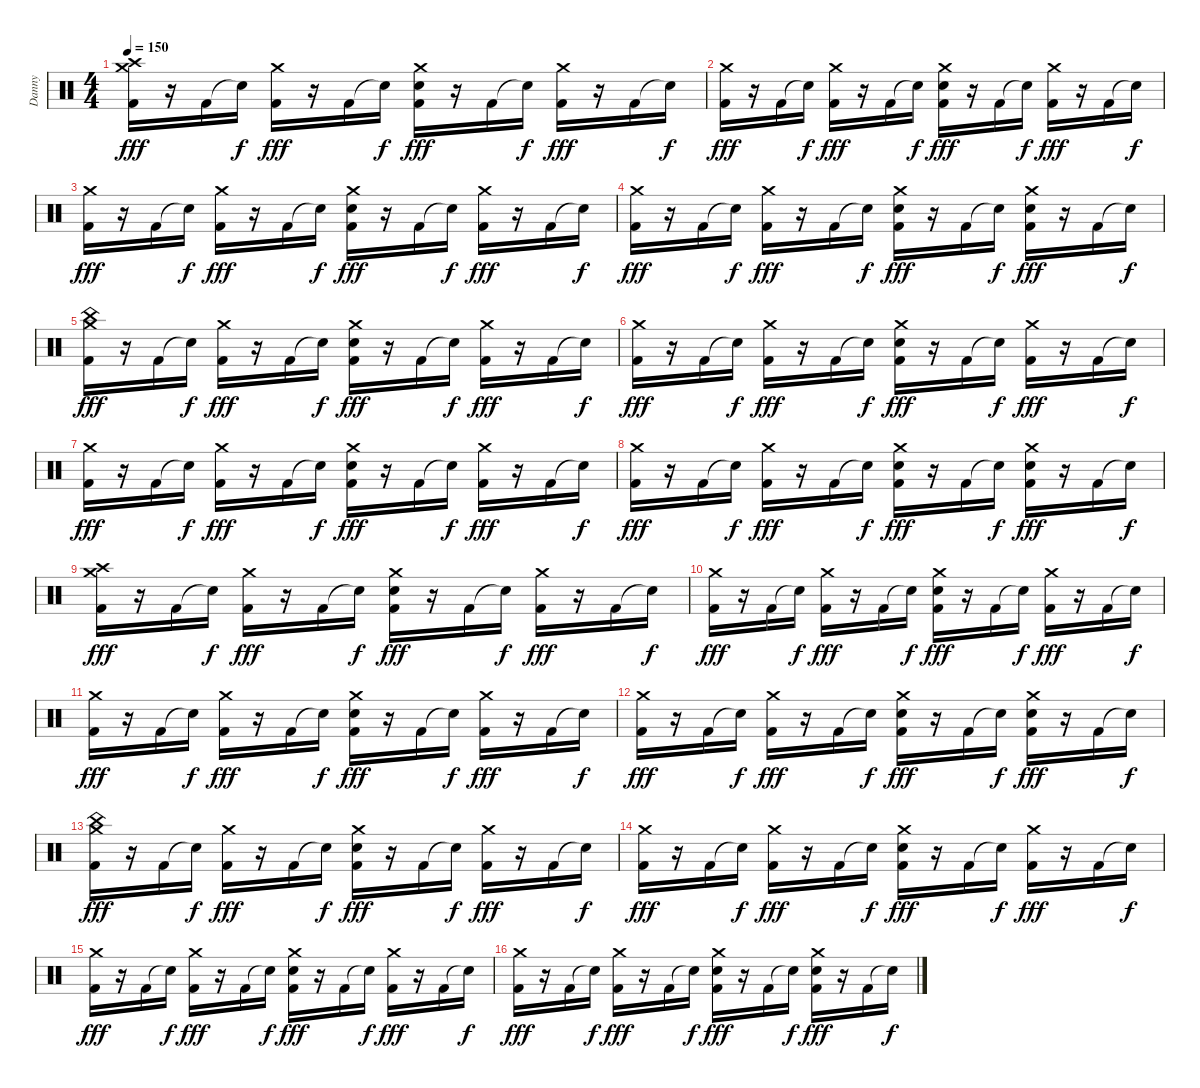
\track ("Danny" "Danny") {instrument percussion}
\staff {score}
\articulation defaults
\ts (4 4)
\tempo 150
\clef neutral
\ks c
("Crash medium (hit)" "Crash high (hit)" "Kick (hit) 2").16{dy fff} r.16 "Kick (hit) 2".16 "Snare (hit)"{t}.16{dy f} ("Crash medium (hit)" "Kick (hit) 2").16{dy fff} r.16 "Kick (hit) 2".16 "Snare (hit)"{t}.16{dy f} ("Crash medium (hit)" "Snare (hit) 2" "Kick (hit) 2").16{dy fff} r.16 "Kick (hit) 2".16 "Snare (hit)"{t}.16{dy f} ("Crash medium (hit)" "Kick (hit) 2").16{dy fff} r.16 "Kick (hit) 2".16 "Snare (hit)"{t}.16{dy f} |
("Crash medium (hit)" "Kick (hit) 2").16{dy fff} r.16 "Kick (hit) 2".16 "Snare (hit)"{t}.16{dy f} ("Crash medium (hit)" "Kick (hit) 2").16{dy fff} r.16 "Kick (hit) 2".16 "Snare (hit)"{t}.16{dy f} ("Crash medium (hit)" "Snare (hit) 2" "Kick (hit) 2").16{dy fff} r.16 "Kick (hit) 2".16 "Snare (hit)"{t}.16{dy f} ("Crash medium (hit)" "Kick (hit) 2").16{dy fff} r.16 "Kick (hit) 2".16 "Snare (hit)"{t}.16{dy f} |
("Crash medium (hit)" "Kick (hit) 2").16{dy fff} r.16 "Kick (hit) 2".16 "Snare (hit)"{t}.16{dy f} ("Crash medium (hit)" "Kick (hit) 2").16{dy fff} r.16 "Kick (hit) 2".16 "Snare (hit)"{t}.16{dy f} ("Crash medium (hit)" "Snare (hit) 2" "Kick (hit) 2").16{dy fff} r.16 "Kick (hit) 2".16 "Snare (hit)"{t}.16{dy f} ("Crash medium (hit)" "Kick (hit) 2").16{dy fff} r.16 "Kick (hit) 2".16 "Snare (hit)"{t}.16{dy f} |
("Crash medium (hit)" "Kick (hit) 2").16{dy fff} r.16 "Kick (hit) 2".16 "Snare (hit)"{t}.16{dy f} ("Crash medium (hit)" "Kick (hit) 2").16{dy fff} r.16 "Kick (hit) 2".16 "Snare (hit)"{t}.16{dy f} ("Crash medium (hit)" "Snare (hit) 2" "Kick (hit) 2").16{dy fff} r.16 "Kick (hit) 2".16 "Snare (hit)"{t}.16{dy f} ("Crash medium (hit)" "Snare (hit) 2" "Kick (hit) 2").16{dy fff} r.16 "Kick (hit) 2".16 "Snare (hit)"{t}.16{dy f} |
("Crash medium (hit)" "China (hit)" "Kick (hit) 2").16{dy fff} r.16 "Kick (hit) 2".16 "Snare (hit)"{t}.16{dy f} ("Crash medium (hit)" "Kick (hit) 2").16{dy fff} r.16 "Kick (hit) 2".16 "Snare (hit)"{t}.16{dy f} ("Crash medium (hit)" "Snare (hit) 2" "Kick (hit) 2").16{dy fff} r.16 "Kick (hit) 2".16 "Snare (hit)"{t}.16{dy f} ("Crash medium (hit)" "Kick (hit) 2").16{dy fff} r.16 "Kick (hit) 2".16 "Snare (hit)"{t}.16{dy f} |
("Crash medium (hit)" "Kick (hit) 2").16{dy fff} r.16 "Kick (hit) 2".16 "Snare (hit)"{t}.16{dy f} ("Crash medium (hit)" "Kick (hit) 2").16{dy fff} r.16 "Kick (hit) 2".16 "Snare (hit)"{t}.16{dy f} ("Crash medium (hit)" "Snare (hit) 2" "Kick (hit) 2").16{dy fff} r.16 "Kick (hit) 2".16 "Snare (hit)"{t}.16{dy f} ("Crash medium (hit)" "Kick (hit) 2").16{dy fff} r.16 "Kick (hit) 2".16 "Snare (hit)"{t}.16{dy f} |
("Crash medium (hit)" "Kick (hit) 2").16{dy fff} r.16 "Kick (hit) 2".16 "Snare (hit)"{t}.16{dy f} ("Crash medium (hit)" "Kick (hit) 2").16{dy fff} r.16 "Kick (hit) 2".16 "Snare (hit)"{t}.16{dy f} ("Crash medium (hit)" "Snare (hit) 2" "Kick (hit) 2").16{dy fff} r.16 "Kick (hit) 2".16 "Snare (hit)"{t}.16{dy f} ("Crash medium (hit)" "Kick (hit) 2").16{dy fff} r.16 "Kick (hit) 2".16 "Snare (hit)"{t}.16{dy f} |
("Crash medium (hit)" "Kick (hit) 2").16{dy fff} r.16 "Kick (hit) 2".16 "Snare (hit)"{t}.16{dy f} ("Crash medium (hit)" "Kick (hit) 2").16{dy fff} r.16 "Kick (hit) 2".16 "Snare (hit)"{t}.16{dy f} ("Crash medium (hit)" "Snare (hit) 2" "Kick (hit) 2").16{dy fff} r.16 "Kick (hit) 2".16 "Snare (hit)"{t}.16{dy f} ("Crash medium (hit)" "Snare (hit) 2" "Kick (hit) 2").16{dy fff} r.16 "Kick (hit) 2".16 "Snare (hit)"{t}.16{dy f} |
("Crash medium (hit)" "Crash high (hit)" "Kick (hit) 2").16{dy fff} r.16 "Kick (hit) 2".16 "Snare (hit)"{t}.16{dy f} ("Crash medium (hit)" "Kick (hit) 2").16{dy fff} r.16 "Kick (hit) 2".16 "Snare (hit)"{t}.16{dy f} ("Crash medium (hit)" "Snare (hit) 2" "Kick (hit) 2").16{dy fff} r.16 "Kick (hit) 2".16 "Snare (hit)"{t}.16{dy f} ("Crash medium (hit)" "Kick (hit) 2").16{dy fff} r.16 "Kick (hit) 2".16 "Snare (hit)"{t}.16{dy f} |
("Crash medium (hit)" "Kick (hit) 2").16{dy fff} r.16 "Kick (hit) 2".16 "Snare (hit)"{t}.16{dy f} ("Crash medium (hit)" "Kick (hit) 2").16{dy fff} r.16 "Kick (hit) 2".16 "Snare (hit)"{t}.16{dy f} ("Crash medium (hit)" "Snare (hit) 2" "Kick (hit) 2").16{dy fff} r.16 "Kick (hit) 2".16 "Snare (hit)"{t}.16{dy f} ("Crash medium (hit)" "Kick (hit) 2").16{dy fff} r.16 "Kick (hit) 2".16 "Snare (hit)"{t}.16{dy f} |
("Crash medium (hit)" "Kick (hit) 2").16{dy fff} r.16 "Kick (hit) 2".16 "Snare (hit)"{t}.16{dy f} ("Crash medium (hit)" "Kick (hit) 2").16{dy fff} r.16 "Kick (hit) 2".16 "Snare (hit)"{t}.16{dy f} ("Crash medium (hit)" "Snare (hit) 2" "Kick (hit) 2").16{dy fff} r.16 "Kick (hit) 2".16 "Snare (hit)"{t}.16{dy f} ("Crash medium (hit)" "Kick (hit) 2").16{dy fff} r.16 "Kick (hit) 2".16 "Snare (hit)"{t}.16{dy f} |
("Crash medium (hit)" "Kick (hit) 2").16{dy fff} r.16 "Kick (hit) 2".16 "Snare (hit)"{t}.16{dy f} ("Crash medium (hit)" "Kick (hit) 2").16{dy fff} r.16 "Kick (hit) 2".16 "Snare (hit)"{t}.16{dy f} ("Crash medium (hit)" "Snare (hit) 2" "Kick (hit) 2").16{dy fff} r.16 "Kick (hit) 2".16 "Snare (hit)"{t}.16{dy f} ("Crash medium (hit)" "Snare (hit) 2" "Kick (hit) 2").16{dy fff} r.16 "Kick (hit) 2".16 "Snare (hit)"{t}.16{dy f} |
("Crash medium (hit)" "China (hit)" "Kick (hit) 2").16{dy fff} r.16 "Kick (hit) 2".16 "Snare (hit)"{t}.16{dy f} ("Crash medium (hit)" "Kick (hit) 2").16{dy fff} r.16 "Kick (hit) 2".16 "Snare (hit)"{t}.16{dy f} ("Crash medium (hit)" "Snare (hit) 2" "Kick (hit) 2").16{dy fff} r.16 "Kick (hit) 2".16 "Snare (hit)"{t}.16{dy f} ("Crash medium (hit)" "Kick (hit) 2").16{dy fff} r.16 "Kick (hit) 2".16 "Snare (hit)"{t}.16{dy f} |
("Crash medium (hit)" "Kick (hit) 2").16{dy fff} r.16 "Kick (hit) 2".16 "Snare (hit)"{t}.16{dy f} ("Crash medium (hit)" "Kick (hit) 2").16{dy fff} r.16 "Kick (hit) 2".16 "Snare (hit)"{t}.16{dy f} ("Crash medium (hit)" "Snare (hit) 2" "Kick (hit) 2").16{dy fff} r.16 "Kick (hit) 2".16 "Snare (hit)"{t}.16{dy f} ("Crash medium (hit)" "Kick (hit) 2").16{dy fff} r.16 "Kick (hit) 2".16 "Snare (hit)"{t}.16{dy f} |
("Crash medium (hit)" "Kick (hit) 2").16{dy fff} r.16 "Kick (hit) 2".16 "Snare (hit)"{t}.16{dy f} ("Crash medium (hit)" "Kick (hit) 2").16{dy fff} r.16 "Kick (hit) 2".16 "Snare (hit)"{t}.16{dy f} ("Crash medium (hit)" "Snare (hit) 2" "Kick (hit) 2").16{dy fff} r.16 "Kick (hit) 2".16 "Snare (hit)"{t}.16{dy f} ("Crash medium (hit)" "Kick (hit) 2").16{dy fff} r.16 "Kick (hit) 2".16 "Snare (hit)"{t}.16{dy f} |
("Crash medium (hit)" "Kick (hit) 2").16{dy fff} r.16 "Kick (hit) 2".16 "Snare (hit)"{t}.16{dy f} ("Crash medium (hit)" "Kick (hit) 2").16{dy fff} r.16 "Kick (hit) 2".16 "Snare (hit)"{t}.16{dy f} ("Crash medium (hit)" "Snare (hit) 2" "Kick (hit) 2").16{dy fff} r.16 "Kick (hit) 2".16 "Snare (hit)"{t}.16{dy f} ("Crash medium (hit)" "Snare (hit) 2" "Kick (hit) 2").16{dy fff} r.16 "Kick (hit) 2".16 "Snare (hit)"{t}.16{dy f}
